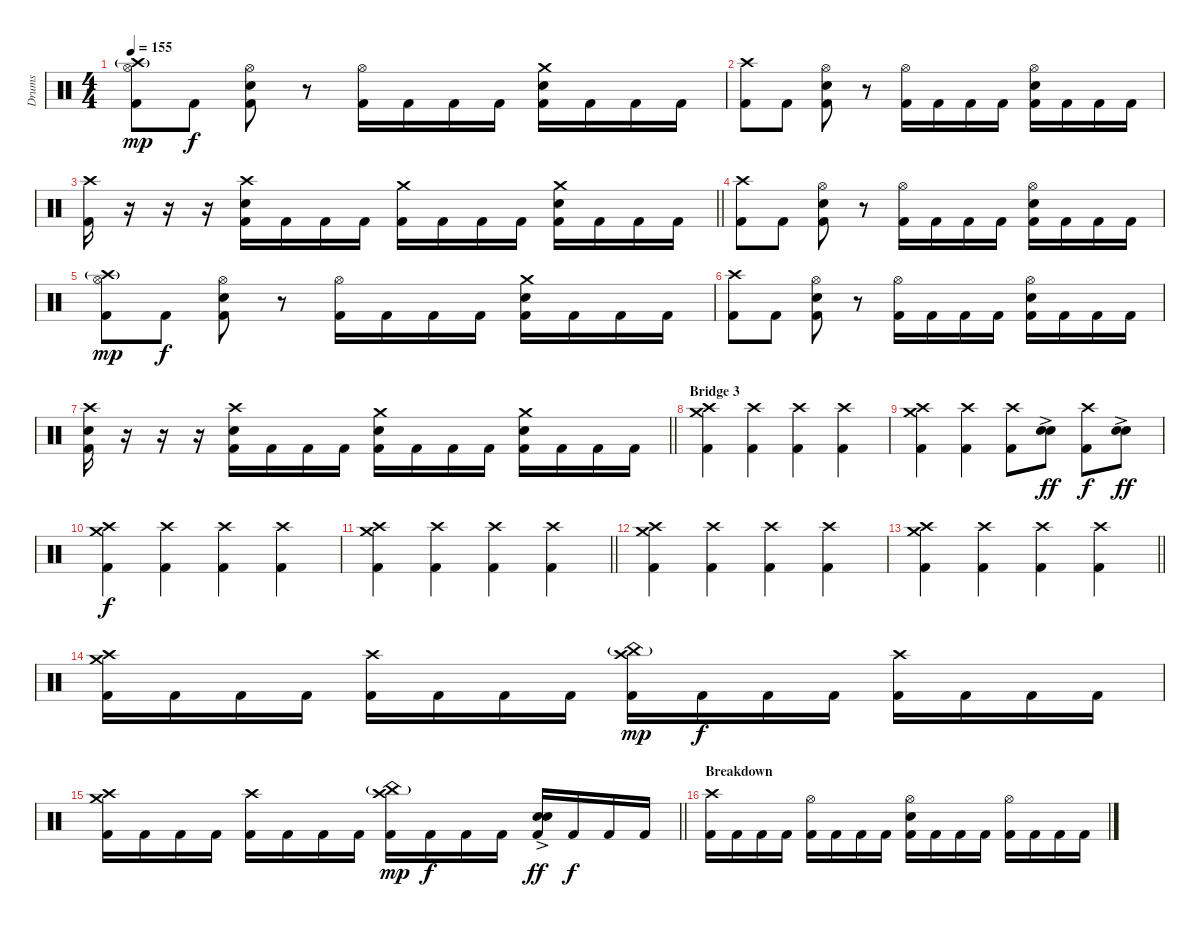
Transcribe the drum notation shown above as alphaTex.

\track ("Drums" "Drums") {instrument percussion}
\staff {score}
\articulation defaults
\ts (4 4)
\tempo 155
\clef neutral
\ks c
("Crash high (hit)"{g} "Hi-Hat (open)" "Kick (hit) 2").8{dy mp} "Kick (hit) 2".8{dy f} ("Hi-Hat (open)" "Snare (hit) 2" "Kick (hit) 2").8 r.8 ("Hi-Hat (open)" "Kick (hit) 2").16 "Kick (hit) 2".16 "Kick (hit) 2".16 "Kick (hit) 2".16 ("Crash medium (hit)" "Snare (hit) 2" "Kick (hit) 2").16 "Kick (hit) 2".16 "Kick (hit) 2".16 "Kick (hit) 2".16 |
("Crash high (hit)" "Kick (hit) 2").8 "Kick (hit) 2".8 ("Hi-Hat (open)" "Snare (hit) 2" "Kick (hit) 2").8 r.8 ("Hi-Hat (open)" "Kick (hit) 2").16 "Kick (hit) 2".16 "Kick (hit) 2".16 "Kick (hit) 2".16 ("Hi-Hat (open)" "Snare (hit) 2" "Kick (hit) 2").16 "Kick (hit) 2".16 "Kick (hit) 2".16 "Kick (hit) 2".16 |
\barLineRight lightlight
("Crash high (hit)" "Kick (hit) 2").16 r.16 r.16 r.16 ("Crash high (hit)" "Snare (hit) 2" "Kick (hit) 2").16 "Kick (hit) 2".16 "Kick (hit) 2".16 "Kick (hit) 2".16 ("Crash medium (hit)" "Kick (hit) 2").16 "Kick (hit) 2".16 "Kick (hit) 2".16 "Kick (hit) 2".16 ("Crash medium (hit)" "Snare (hit) 2" "Kick (hit) 2").16 "Kick (hit) 2".16 "Kick (hit) 2".16 "Kick (hit) 2".16 |
("Crash high (hit)" "Kick (hit) 2").8 "Kick (hit) 2".8 ("Hi-Hat (open)" "Snare (hit) 2" "Kick (hit) 2").8 r.8 ("Hi-Hat (open)" "Kick (hit) 2").16 "Kick (hit) 2".16 "Kick (hit) 2".16 "Kick (hit) 2".16 ("Hi-Hat (open)" "Snare (hit) 2" "Kick (hit) 2").16 "Kick (hit) 2".16 "Kick (hit) 2".16 "Kick (hit) 2".16 |
("Crash high (hit)"{g} "Hi-Hat (open)" "Kick (hit) 2").8{dy mp} "Kick (hit) 2".8{dy f} ("Hi-Hat (open)" "Snare (hit) 2" "Kick (hit) 2").8 r.8 ("Hi-Hat (open)" "Kick (hit) 2").16 "Kick (hit) 2".16 "Kick (hit) 2".16 "Kick (hit) 2".16 ("Crash medium (hit)" "Snare (hit) 2" "Kick (hit) 2").16 "Kick (hit) 2".16 "Kick (hit) 2".16 "Kick (hit) 2".16 |
("Crash high (hit)" "Kick (hit) 2").8 "Kick (hit) 2".8 ("Hi-Hat (open)" "Snare (hit) 2" "Kick (hit) 2").8 r.8 ("Hi-Hat (open)" "Kick (hit) 2").16 "Kick (hit) 2".16 "Kick (hit) 2".16 "Kick (hit) 2".16 ("Hi-Hat (open)" "Snare (hit) 2" "Kick (hit) 2").16 "Kick (hit) 2".16 "Kick (hit) 2".16 "Kick (hit) 2".16 |
\barLineRight lightlight
("Crash high (hit)" "Snare (hit) 2" "Kick (hit) 2").16 r.16 r.16 r.16 ("Crash high (hit)" "Snare (hit) 2" "Kick (hit) 2").16 "Kick (hit) 2".16 "Kick (hit) 2".16 "Kick (hit) 2".16 ("Crash medium (hit)" "Snare (hit) 2" "Kick (hit) 2").16 "Kick (hit) 2".16 "Kick (hit) 2".16 "Kick (hit) 2".16 ("Crash medium (hit)" "Snare (hit) 2" "Kick (hit) 2").16 "Kick (hit) 2".16 "Kick (hit) 2".16 "Kick (hit) 2".16 |
\section ("" "Bridge 3")
("Crash high (hit)" "Crash medium (hit)" "Kick (hit) 2").4 ("Crash high (hit)" "Kick (hit) 2").4 ("Crash high (hit)" "Kick (hit) 2").4 ("Crash high (hit)" "Kick (hit) 2").4 |
("Crash high (hit)" "Crash medium (hit)" "Kick (hit) 2").4 ("Crash high (hit)" "Kick (hit) 2").4 ("Crash high (hit)" "Kick (hit) 2").8 ("Snare (hit) 2"{ac} "Snare (hit) 2").8{dy ff} ("Crash high (hit)" "Kick (hit) 2").8{dy f} ("Snare (hit) 2"{ac} "Snare (hit) 2").8{dy ff} |
("Crash high (hit)" "Crash medium (hit)" "Kick (hit) 2").4{dy f} ("Crash high (hit)" "Kick (hit) 2").4 ("Crash high (hit)" "Kick (hit) 2").4 ("Crash high (hit)" "Kick (hit) 2").4 |
\barLineRight lightlight
("Crash high (hit)" "Crash medium (hit)" "Kick (hit) 2").4 ("Crash high (hit)" "Kick (hit) 2").4 ("Crash high (hit)" "Kick (hit) 2").4 ("Crash high (hit)" "Kick (hit) 2").4 |
("Crash high (hit)" "Crash medium (hit)" "Kick (hit) 2").4 ("Crash high (hit)" "Kick (hit) 2").4 ("Crash high (hit)" "Kick (hit) 2").4 ("Crash high (hit)" "Kick (hit) 2").4 |
\barLineRight lightlight
("Crash high (hit)" "Crash medium (hit)" "Kick (hit) 2").4 ("Crash high (hit)" "Kick (hit) 2").4 ("Crash high (hit)" "Kick (hit) 2").4 ("Crash high (hit)" "Kick (hit) 2").4 |
("Crash high (hit)" "Crash medium (hit)" "Kick (hit) 2").16 "Kick (hit) 2".16 "Kick (hit) 2".16 "Kick (hit) 2".16 ("Crash high (hit)" "Kick (hit) 2").16 "Kick (hit) 2".16 "Kick (hit) 2".16 "Kick (hit) 2".16 ("Crash high (hit)" "China (hit)"{g} "Kick (hit) 2").16{dy mp} "Kick (hit) 2".16{dy f} "Kick (hit) 2".16 "Kick (hit) 2".16 ("Crash high (hit)" "Kick (hit) 2").16 "Kick (hit) 2".16 "Kick (hit) 2".16 "Kick (hit) 2".16 |
\barLineRight lightlight
("Crash high (hit)" "Crash medium (hit)" "Kick (hit) 2").16 "Kick (hit) 2".16 "Kick (hit) 2".16 "Kick (hit) 2".16 ("Crash high (hit)" "Kick (hit) 2").16 "Kick (hit) 2".16 "Kick (hit) 2".16 "Kick (hit) 2".16 ("Crash high (hit)" "China (hit)"{g} "Kick (hit) 2").16{dy mp} "Kick (hit) 2".16{dy f} "Kick (hit) 2".16 "Kick (hit) 2".16 ("Snare (hit) 2"{ac} "Snare (hit) 2"{ac} "Kick (hit) 2").16{dy ff} "Kick (hit) 2".16{dy f} "Kick (hit) 2".16 "Kick (hit) 2".16 |
\section ("" "Breakdown")
("Crash high (hit)" "Kick (hit) 2").16 "Kick (hit) 2".16 "Kick (hit) 2".16 "Kick (hit) 2".16 ("Hi-Hat (open)" "Kick (hit) 2").16 "Kick (hit) 2".16 "Kick (hit) 2".16 "Kick (hit) 2".16 ("Hi-Hat (open)" "Snare (hit) 2" "Kick (hit) 2").16 "Kick (hit) 2".16 "Kick (hit) 2".16 "Kick (hit) 2".16 ("Hi-Hat (open)" "Kick (hit) 2").16 "Kick (hit) 2".16 "Kick (hit) 2".16 "Kick (hit) 2".16
